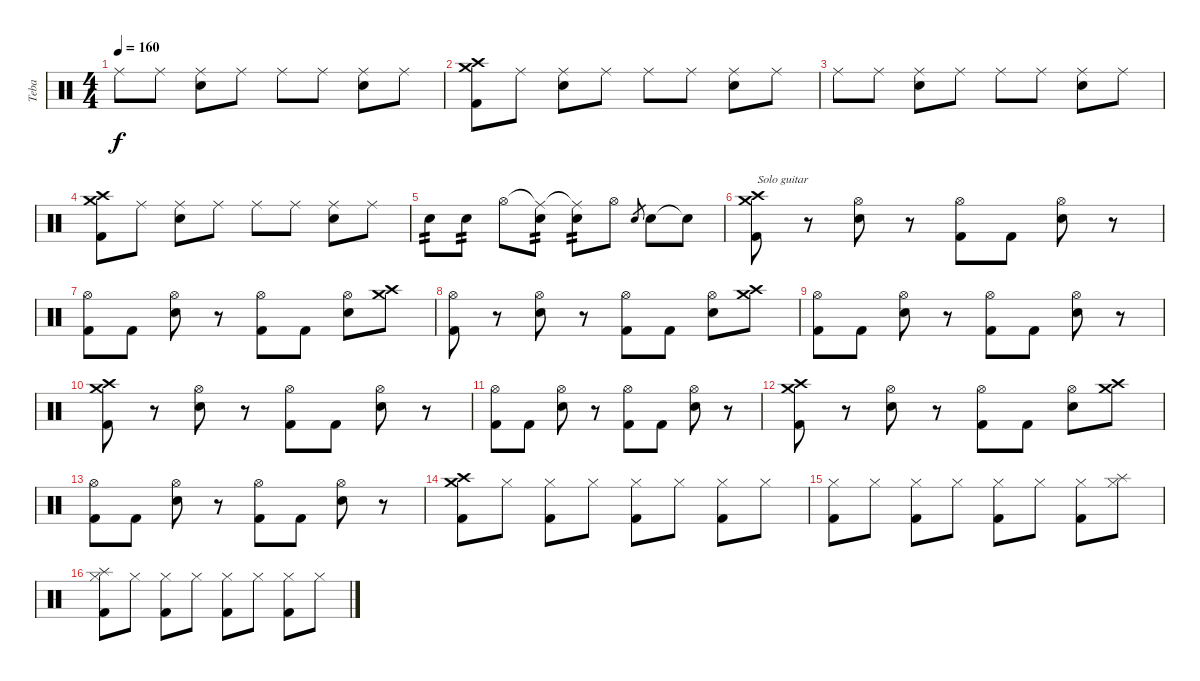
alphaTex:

\track ("Teba" "Teba") {instrument percussion}
\staff {score}
\articulation defaults
\ts (4 4)
\tempo 160
\clef neutral
\ks c "Ride (middle)".8{dy f} "Ride (middle)".8
("Ride (middle)" "Electric Snare (hit)").8 "Ride (middle)".8 "Ride (middle)".8 "Ride (middle)".8 ("Ride (middle)" "Electric Snare (hit)").8 "Ride (middle)".8 |
("Crash medium (hit)" "Crash high (hit)" "Kick (hit) 2").8 "Ride (middle)".8 ("Ride (middle)" "Electric Snare (hit)").8 "Ride (middle)".8 "Ride (middle)".8 "Ride (middle)".8 ("Ride (middle)" "Electric Snare (hit)").8 "Ride (middle)".8 |
"Ride (middle)".8 "Ride (middle)".8 ("Ride (middle)" "Electric Snare (hit)").8 "Ride (middle)".8 "Ride (middle)".8 "Ride (middle)".8 ("Ride (middle)" "Electric Snare (hit)").8 "Ride (middle)".8 |
("Crash medium (hit)" "Crash high (hit)" "Kick (hit) 2").8 "Ride (middle)".8 ("Ride (middle)" "Electric Snare (hit)").8 "Ride (middle)".8 "Ride (middle)".8 "Ride (middle)".8 ("Ride (middle)" "Electric Snare (hit)").8 "Ride (middle)".8 |
"Electric Snare (hit)".8{tp 2} "Electric Snare (hit)".8{tp 2} "Hi-Hat (open)".8 ("Ride (middle)"{t} "Electric Snare (hit)").8{tp 2} ("Ride (middle)"{t} "Electric Snare (hit)").8{tp 2} "Hi-Hat (open)".8 "Electric Snare (hit)"{h}.8{gr} "Electric Snare (hit)".8 "Snare (hit)"{t}.8 |
("Crash medium (hit)" "Crash high (hit)" "Kick (hit) 2").8{txt "Solo guitar"} r.8 ("Hi-Hat (open)" "Electric Snare (hit)").8 r.8 ("Hi-Hat (open)" "Kick (hit) 2").8 "Kick (hit) 2".8 ("Hi-Hat (open)" "Electric Snare (hit)").8 r.8 |
("Hi-Hat (open)" "Kick (hit) 2").8 "Kick (hit) 2".8 ("Hi-Hat (open)" "Electric Snare (hit)").8 r.8 ("Hi-Hat (open)" "Kick (hit) 2").8 "Kick (hit) 2".8 ("Hi-Hat (open)" "Electric Snare (hit)").8 ("Crash medium (hit)" "Crash high (hit)").8 |
("Hi-Hat (open)" "Kick (hit) 2").8 r.8 ("Hi-Hat (open)" "Electric Snare (hit)").8 r.8 ("Hi-Hat (open)" "Kick (hit) 2").8 "Kick (hit) 2".8 ("Hi-Hat (open)" "Electric Snare (hit)").8 ("Crash medium (hit)" "Crash high (hit)").8 |
("Hi-Hat (open)" "Kick (hit) 2").8 "Kick (hit) 2".8 ("Hi-Hat (open)" "Electric Snare (hit)").8 r.8 ("Hi-Hat (open)" "Kick (hit) 2").8 "Kick (hit) 2".8 ("Hi-Hat (open)" "Electric Snare (hit)").8 r.8 |
("Crash medium (hit)" "Crash high (hit)" "Kick (hit) 2").8 r.8 ("Hi-Hat (open)" "Electric Snare (hit)").8 r.8 ("Hi-Hat (open)" "Kick (hit) 2").8 "Kick (hit) 2".8 ("Hi-Hat (open)" "Electric Snare (hit)").8 r.8 |
("Hi-Hat (open)" "Kick (hit) 2").8 "Kick (hit) 2".8 ("Hi-Hat (open)" "Electric Snare (hit)").8 r.8 ("Hi-Hat (open)" "Kick (hit) 2").8 "Kick (hit) 2".8 ("Hi-Hat (open)" "Electric Snare (hit)").8 r.8 |
("Crash medium (hit)" "Crash high (hit)" "Kick (hit) 2").8 r.8 ("Hi-Hat (open)" "Electric Snare (hit)").8 r.8 ("Hi-Hat (open)" "Kick (hit) 2").8 "Kick (hit) 2".8 ("Hi-Hat (open)" "Electric Snare (hit)").8 ("Crash medium (hit)" "Crash high (hit)").8 |
("Hi-Hat (open)" "Kick (hit) 2").8 "Kick (hit) 2".8 ("Hi-Hat (open)" "Electric Snare (hit)").8 r.8 ("Hi-Hat (open)" "Kick (hit) 2").8 "Kick (hit) 2".8 ("Hi-Hat (open)" "Electric Snare (hit)").8 r.8 |
("Crash medium (hit)" "Crash high (hit)" "Kick (hit) 2").8 "Hi-Hat (closed)".8 ("Hi-Hat (closed)" "Kick (hit) 2").8 "Hi-Hat (closed)".8 ("Hi-Hat (closed)" "Kick (hit) 2").8 "Hi-Hat (closed)".8 ("Hi-Hat (closed)" "Kick (hit) 2").8 "Hi-Hat (closed)".8 |
("Hi-Hat (closed)" "Kick (hit) 2").8 "Hi-Hat (closed)".8 ("Hi-Hat (closed)" "Kick (hit) 2").8 "Hi-Hat (closed)".8 ("Hi-Hat (closed)" "Kick (hit) 2").8 "Hi-Hat (closed)".8 ("Hi-Hat (closed)" "Kick (hit) 2").8 ("Splash (hit)" "Hi-Hat (closed)").8 |
("Splash (hit)" "Hi-Hat (closed)" "Kick (hit) 2").8 "Hi-Hat (closed)".8 ("Hi-Hat (closed)" "Kick (hit) 2").8 "Hi-Hat (closed)".8 ("Hi-Hat (closed)" "Kick (hit) 2").8 "Hi-Hat (closed)".8 ("Hi-Hat (closed)" "Kick (hit) 2").8 "Hi-Hat (closed)".8
